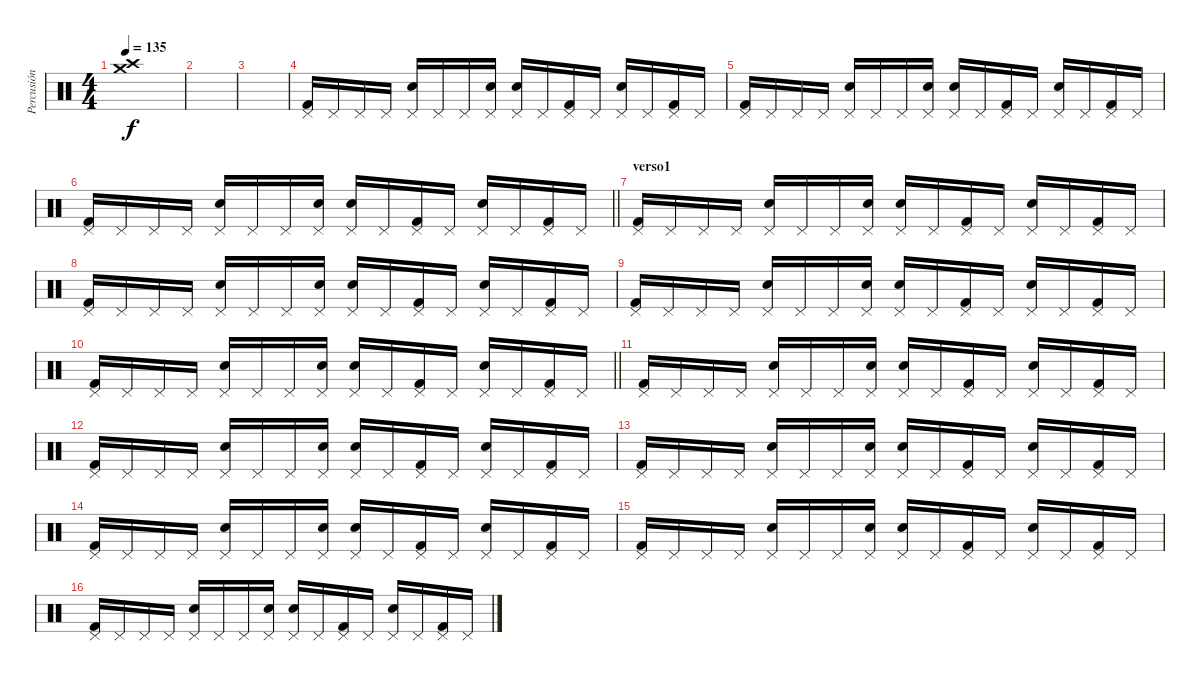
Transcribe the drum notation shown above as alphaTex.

\track ("Percusión" "Percusión") {instrument percussion}
\staff {score}
\articulation defaults
\ts (4 4)
\tempo 135
\clef neutral
\ks c
("Crash high (hit)" "Crash medium (hit)").1{dy f} |
|
|
("Pedal Hi-Hat (hit)" "Kick (hit) 2").16{volume 14} "Pedal Hi-Hat (hit)".16 "Pedal Hi-Hat (hit)".16 "Pedal Hi-Hat (hit)".16 ("Pedal Hi-Hat (hit)" "Snare (hit) 2").16 "Pedal Hi-Hat (hit)".16 "Pedal Hi-Hat (hit)".16 ("Pedal Hi-Hat (hit)" "Snare (hit) 2").16 ("Pedal Hi-Hat (hit)" "Snare (hit) 2").16 "Pedal Hi-Hat (hit)".16 ("Pedal Hi-Hat (hit)" "Kick (hit) 2").16 "Pedal Hi-Hat (hit)".16 ("Pedal Hi-Hat (hit)" "Snare (hit) 2").16 "Pedal Hi-Hat (hit)".16 ("Pedal Hi-Hat (hit)" "Kick (hit) 2").16 "Pedal Hi-Hat (hit)".16 |
("Pedal Hi-Hat (hit)" "Kick (hit) 2").16 "Pedal Hi-Hat (hit)".16 "Pedal Hi-Hat (hit)".16 "Pedal Hi-Hat (hit)".16 ("Pedal Hi-Hat (hit)" "Snare (hit) 2").16 "Pedal Hi-Hat (hit)".16 "Pedal Hi-Hat (hit)".16 ("Pedal Hi-Hat (hit)" "Snare (hit) 2").16 ("Pedal Hi-Hat (hit)" "Snare (hit) 2").16 "Pedal Hi-Hat (hit)".16 ("Pedal Hi-Hat (hit)" "Kick (hit) 2").16 "Pedal Hi-Hat (hit)".16 ("Pedal Hi-Hat (hit)" "Snare (hit) 2").16 "Pedal Hi-Hat (hit)".16 ("Pedal Hi-Hat (hit)" "Kick (hit) 2").16 "Pedal Hi-Hat (hit)".16 |
\barLineRight lightlight
("Pedal Hi-Hat (hit)" "Kick (hit) 2").16 "Pedal Hi-Hat (hit)".16 "Pedal Hi-Hat (hit)".16 "Pedal Hi-Hat (hit)".16 ("Pedal Hi-Hat (hit)" "Snare (hit) 2").16 "Pedal Hi-Hat (hit)".16 "Pedal Hi-Hat (hit)".16 ("Pedal Hi-Hat (hit)" "Snare (hit) 2").16 ("Pedal Hi-Hat (hit)" "Snare (hit) 2").16 "Pedal Hi-Hat (hit)".16 ("Pedal Hi-Hat (hit)" "Kick (hit) 2").16 "Pedal Hi-Hat (hit)".16 ("Pedal Hi-Hat (hit)" "Snare (hit) 2").16 "Pedal Hi-Hat (hit)".16 ("Pedal Hi-Hat (hit)" "Kick (hit) 2").16 "Pedal Hi-Hat (hit)".16 |
\section ("" "verso1")
("Pedal Hi-Hat (hit)" "Kick (hit) 2").16 "Pedal Hi-Hat (hit)".16 "Pedal Hi-Hat (hit)".16 "Pedal Hi-Hat (hit)".16 ("Pedal Hi-Hat (hit)" "Snare (hit) 2").16 "Pedal Hi-Hat (hit)".16 "Pedal Hi-Hat (hit)".16 ("Pedal Hi-Hat (hit)" "Snare (hit) 2").16 ("Pedal Hi-Hat (hit)" "Snare (hit) 2").16 "Pedal Hi-Hat (hit)".16 ("Pedal Hi-Hat (hit)" "Kick (hit) 2").16 "Pedal Hi-Hat (hit)".16 ("Pedal Hi-Hat (hit)" "Snare (hit) 2").16 "Pedal Hi-Hat (hit)".16 ("Pedal Hi-Hat (hit)" "Kick (hit) 2").16 "Pedal Hi-Hat (hit)".16 |
("Pedal Hi-Hat (hit)" "Kick (hit) 2").16 "Pedal Hi-Hat (hit)".16 "Pedal Hi-Hat (hit)".16 "Pedal Hi-Hat (hit)".16 ("Pedal Hi-Hat (hit)" "Snare (hit) 2").16 "Pedal Hi-Hat (hit)".16 "Pedal Hi-Hat (hit)".16 ("Pedal Hi-Hat (hit)" "Snare (hit) 2").16 ("Pedal Hi-Hat (hit)" "Snare (hit) 2").16 "Pedal Hi-Hat (hit)".16 ("Pedal Hi-Hat (hit)" "Kick (hit) 2").16 "Pedal Hi-Hat (hit)".16 ("Pedal Hi-Hat (hit)" "Snare (hit) 2").16 "Pedal Hi-Hat (hit)".16 ("Pedal Hi-Hat (hit)" "Kick (hit) 2").16 "Pedal Hi-Hat (hit)".16 |
("Pedal Hi-Hat (hit)" "Kick (hit) 2").16 "Pedal Hi-Hat (hit)".16 "Pedal Hi-Hat (hit)".16 "Pedal Hi-Hat (hit)".16 ("Pedal Hi-Hat (hit)" "Snare (hit) 2").16 "Pedal Hi-Hat (hit)".16 "Pedal Hi-Hat (hit)".16 ("Pedal Hi-Hat (hit)" "Snare (hit) 2").16 ("Pedal Hi-Hat (hit)" "Snare (hit) 2").16 "Pedal Hi-Hat (hit)".16 ("Pedal Hi-Hat (hit)" "Kick (hit) 2").16 "Pedal Hi-Hat (hit)".16 ("Pedal Hi-Hat (hit)" "Snare (hit) 2").16 "Pedal Hi-Hat (hit)".16 ("Pedal Hi-Hat (hit)" "Kick (hit) 2").16 "Pedal Hi-Hat (hit)".16 |
\barLineRight lightlight
("Pedal Hi-Hat (hit)" "Kick (hit) 2").16 "Pedal Hi-Hat (hit)".16 "Pedal Hi-Hat (hit)".16 "Pedal Hi-Hat (hit)".16 ("Pedal Hi-Hat (hit)" "Snare (hit) 2").16 "Pedal Hi-Hat (hit)".16 "Pedal Hi-Hat (hit)".16 ("Pedal Hi-Hat (hit)" "Snare (hit) 2").16 ("Pedal Hi-Hat (hit)" "Snare (hit) 2").16 "Pedal Hi-Hat (hit)".16 ("Pedal Hi-Hat (hit)" "Kick (hit) 2").16 "Pedal Hi-Hat (hit)".16 ("Pedal Hi-Hat (hit)" "Snare (hit) 2").16 "Pedal Hi-Hat (hit)".16 ("Pedal Hi-Hat (hit)" "Kick (hit) 2").16 "Pedal Hi-Hat (hit)".16 |
("Pedal Hi-Hat (hit)" "Kick (hit) 2").16 "Pedal Hi-Hat (hit)".16 "Pedal Hi-Hat (hit)".16 "Pedal Hi-Hat (hit)".16 ("Pedal Hi-Hat (hit)" "Snare (hit) 2").16 "Pedal Hi-Hat (hit)".16 "Pedal Hi-Hat (hit)".16 ("Pedal Hi-Hat (hit)" "Snare (hit) 2").16 ("Pedal Hi-Hat (hit)" "Snare (hit) 2").16 "Pedal Hi-Hat (hit)".16 ("Pedal Hi-Hat (hit)" "Kick (hit) 2").16 "Pedal Hi-Hat (hit)".16 ("Pedal Hi-Hat (hit)" "Snare (hit) 2").16 "Pedal Hi-Hat (hit)".16 ("Pedal Hi-Hat (hit)" "Kick (hit) 2").16 "Pedal Hi-Hat (hit)".16 |
("Pedal Hi-Hat (hit)" "Kick (hit) 2").16 "Pedal Hi-Hat (hit)".16 "Pedal Hi-Hat (hit)".16 "Pedal Hi-Hat (hit)".16 ("Pedal Hi-Hat (hit)" "Snare (hit) 2").16 "Pedal Hi-Hat (hit)".16 "Pedal Hi-Hat (hit)".16 ("Pedal Hi-Hat (hit)" "Snare (hit) 2").16 ("Pedal Hi-Hat (hit)" "Snare (hit) 2").16 "Pedal Hi-Hat (hit)".16 ("Pedal Hi-Hat (hit)" "Kick (hit) 2").16 "Pedal Hi-Hat (hit)".16 ("Pedal Hi-Hat (hit)" "Snare (hit) 2").16 "Pedal Hi-Hat (hit)".16 ("Pedal Hi-Hat (hit)" "Kick (hit) 2").16 "Pedal Hi-Hat (hit)".16 |
("Pedal Hi-Hat (hit)" "Kick (hit) 2").16 "Pedal Hi-Hat (hit)".16 "Pedal Hi-Hat (hit)".16 "Pedal Hi-Hat (hit)".16 ("Pedal Hi-Hat (hit)" "Snare (hit) 2").16 "Pedal Hi-Hat (hit)".16 "Pedal Hi-Hat (hit)".16 ("Pedal Hi-Hat (hit)" "Snare (hit) 2").16 ("Pedal Hi-Hat (hit)" "Snare (hit) 2").16 "Pedal Hi-Hat (hit)".16 ("Pedal Hi-Hat (hit)" "Kick (hit) 2").16 "Pedal Hi-Hat (hit)".16 ("Pedal Hi-Hat (hit)" "Snare (hit) 2").16 "Pedal Hi-Hat (hit)".16 ("Pedal Hi-Hat (hit)" "Kick (hit) 2").16 "Pedal Hi-Hat (hit)".16 |
("Pedal Hi-Hat (hit)" "Kick (hit) 2").16 "Pedal Hi-Hat (hit)".16 "Pedal Hi-Hat (hit)".16 "Pedal Hi-Hat (hit)".16 ("Pedal Hi-Hat (hit)" "Snare (hit) 2").16 "Pedal Hi-Hat (hit)".16 "Pedal Hi-Hat (hit)".16 ("Pedal Hi-Hat (hit)" "Snare (hit) 2").16 ("Pedal Hi-Hat (hit)" "Snare (hit) 2").16 "Pedal Hi-Hat (hit)".16 ("Pedal Hi-Hat (hit)" "Kick (hit) 2").16 "Pedal Hi-Hat (hit)".16 ("Pedal Hi-Hat (hit)" "Snare (hit) 2").16 "Pedal Hi-Hat (hit)".16 ("Pedal Hi-Hat (hit)" "Kick (hit) 2").16 "Pedal Hi-Hat (hit)".16 |
("Pedal Hi-Hat (hit)" "Kick (hit) 2").16 "Pedal Hi-Hat (hit)".16 "Pedal Hi-Hat (hit)".16 "Pedal Hi-Hat (hit)".16 ("Pedal Hi-Hat (hit)" "Snare (hit) 2").16 "Pedal Hi-Hat (hit)".16 "Pedal Hi-Hat (hit)".16 ("Pedal Hi-Hat (hit)" "Snare (hit) 2").16 ("Pedal Hi-Hat (hit)" "Snare (hit) 2").16 "Pedal Hi-Hat (hit)".16 ("Pedal Hi-Hat (hit)" "Kick (hit) 2").16 "Pedal Hi-Hat (hit)".16 ("Pedal Hi-Hat (hit)" "Snare (hit) 2").16 "Pedal Hi-Hat (hit)".16 ("Pedal Hi-Hat (hit)" "Kick (hit) 2").16 "Pedal Hi-Hat (hit)".16 |
("Pedal Hi-Hat (hit)" "Kick (hit) 2").16 "Pedal Hi-Hat (hit)".16 "Pedal Hi-Hat (hit)".16 "Pedal Hi-Hat (hit)".16 ("Pedal Hi-Hat (hit)" "Snare (hit) 2").16 "Pedal Hi-Hat (hit)".16 "Pedal Hi-Hat (hit)".16 ("Pedal Hi-Hat (hit)" "Snare (hit) 2").16 ("Pedal Hi-Hat (hit)" "Snare (hit) 2").16 "Pedal Hi-Hat (hit)".16 ("Pedal Hi-Hat (hit)" "Kick (hit) 2").16 "Pedal Hi-Hat (hit)".16 ("Pedal Hi-Hat (hit)" "Snare (hit) 2").16 "Pedal Hi-Hat (hit)".16 ("Pedal Hi-Hat (hit)" "Kick (hit) 2").16 "Pedal Hi-Hat (hit)".16
